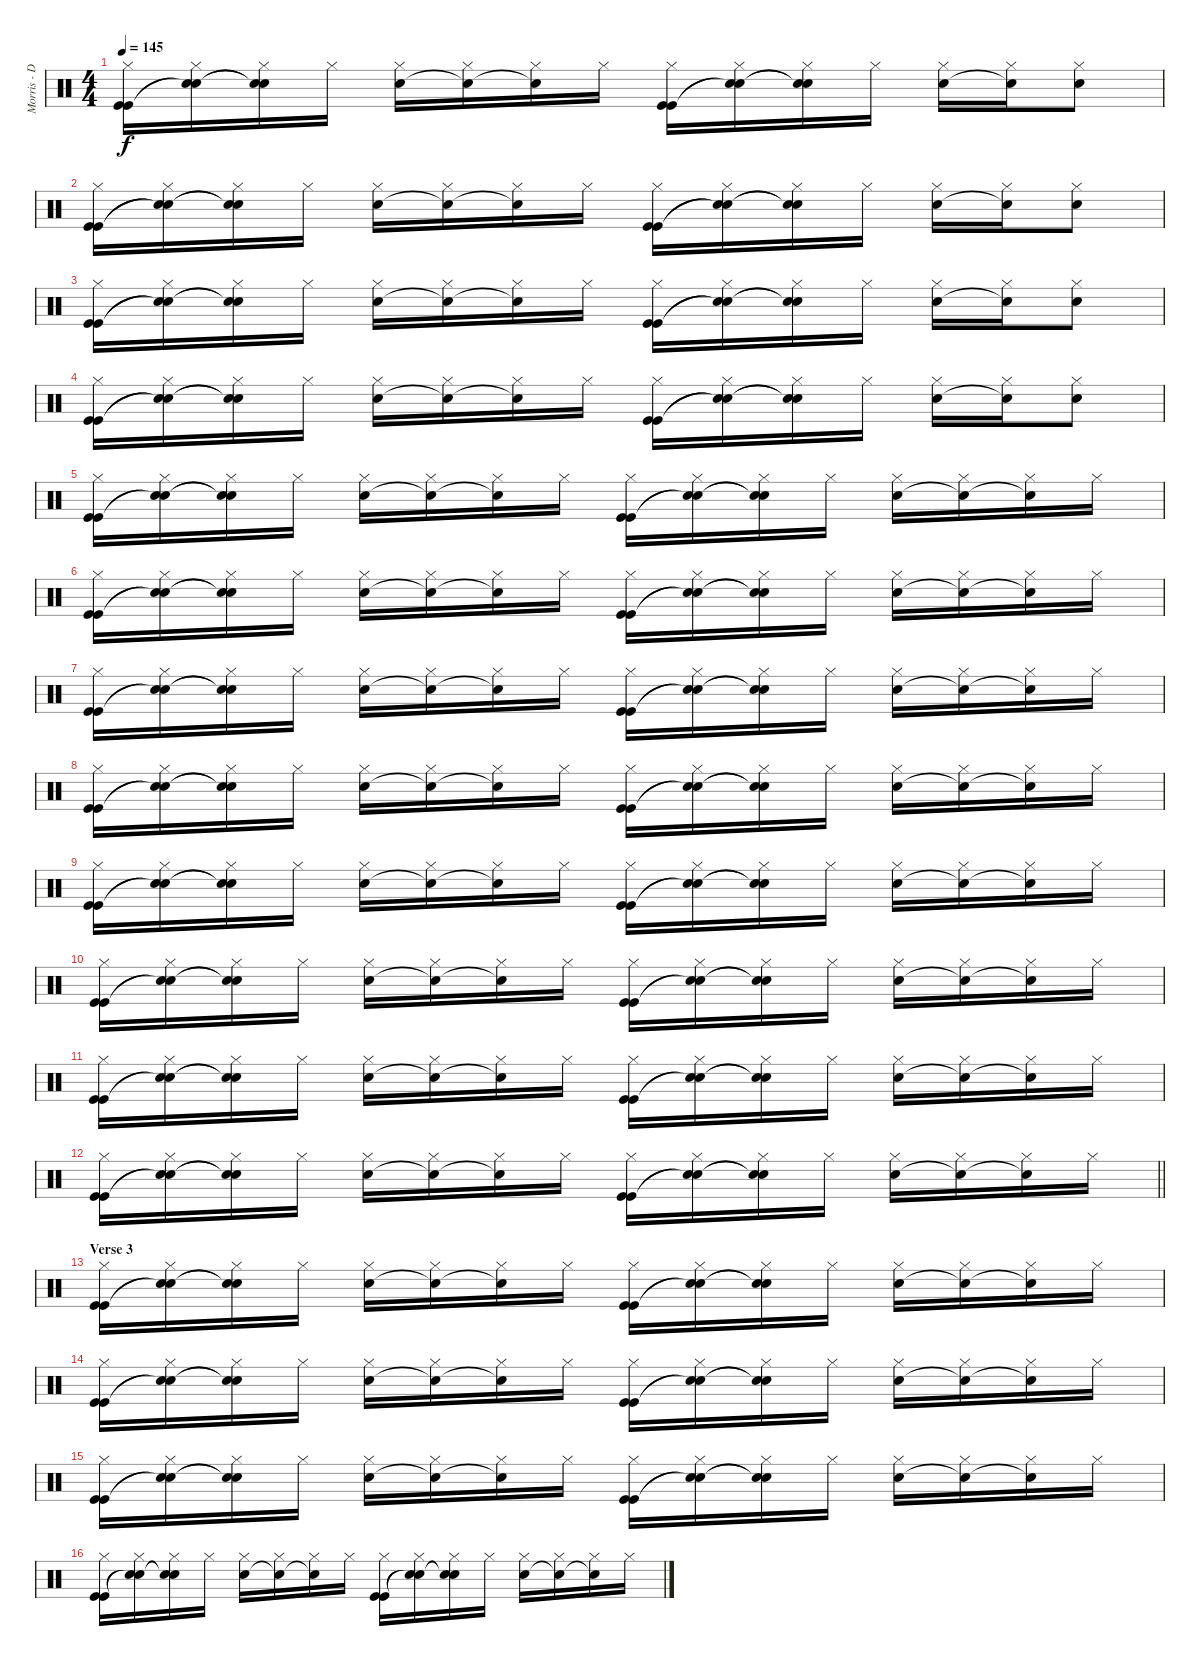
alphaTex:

\track ("Morris - Drums" "Morris - D") {instrument percussion}
\staff {score}
\articulation defaults
\ts (4 4)
\tempo 145
\clef neutral
\ks c
("Hi-Hat (closed)" "Kick (hit)" "Kick (hit)").16{dy f} ("Hi-Hat (closed)" "Snare (hit)"{t} "Snare (hit)"{t}).16 ("Hi-Hat (closed)" "Snare (hit)"{t} "Snare (hit)"{t}).16 "Hi-Hat (closed)".16 ("Hi-Hat (closed)" "Snare (hit) 2").16 ("Hi-Hat (closed)" "Snare (hit)"{t}).16 ("Hi-Hat (closed)" "Snare (hit)"{t}).16 "Hi-Hat (closed)".16 ("Hi-Hat (closed)" "Kick (hit)" "Kick (hit)").16 ("Hi-Hat (closed)" "Snare (hit)"{t} "Snare (hit)"{t}).16 ("Hi-Hat (closed)" "Snare (hit)"{t} "Snare (hit)"{t}).16 "Hi-Hat (closed)".16 ("Hi-Hat (closed)" "Snare (hit) 2").16 ("Hi-Hat (closed)" "Snare (hit) 2"{t}).16 ("Hi-Hat (closed)" "Snare (hit) 2").8 |
("Hi-Hat (closed)" "Kick (hit)" "Kick (hit)").16 ("Hi-Hat (closed)" "Snare (hit)"{t} "Snare (hit)"{t}).16 ("Hi-Hat (closed)" "Snare (hit)"{t} "Snare (hit)"{t}).16 "Hi-Hat (closed)".16 ("Hi-Hat (closed)" "Snare (hit) 2").16 ("Hi-Hat (closed)" "Snare (hit)"{t}).16 ("Hi-Hat (closed)" "Snare (hit)"{t}).16 "Hi-Hat (closed)".16 ("Hi-Hat (closed)" "Kick (hit)" "Kick (hit)").16 ("Hi-Hat (closed)" "Snare (hit)"{t} "Snare (hit)"{t}).16 ("Hi-Hat (closed)" "Snare (hit)"{t} "Snare (hit)"{t}).16 "Hi-Hat (closed)".16 ("Hi-Hat (closed)" "Snare (hit) 2").16 ("Hi-Hat (closed)" "Snare (hit) 2"{t}).16 ("Hi-Hat (closed)" "Snare (hit) 2").8 |
("Hi-Hat (closed)" "Kick (hit)" "Kick (hit)").16 ("Hi-Hat (closed)" "Snare (hit)"{t} "Snare (hit)"{t}).16 ("Hi-Hat (closed)" "Snare (hit)"{t} "Snare (hit)"{t}).16 "Hi-Hat (closed)".16 ("Hi-Hat (closed)" "Snare (hit) 2").16 ("Hi-Hat (closed)" "Snare (hit)"{t}).16 ("Hi-Hat (closed)" "Snare (hit)"{t}).16 "Hi-Hat (closed)".16 ("Hi-Hat (closed)" "Kick (hit)" "Kick (hit)").16 ("Hi-Hat (closed)" "Snare (hit)"{t} "Snare (hit)"{t}).16 ("Hi-Hat (closed)" "Snare (hit)"{t} "Snare (hit)"{t}).16 "Hi-Hat (closed)".16 ("Hi-Hat (closed)" "Snare (hit) 2").16 ("Hi-Hat (closed)" "Snare (hit) 2"{t}).16 ("Hi-Hat (closed)" "Snare (hit) 2").8 |
("Hi-Hat (closed)" "Kick (hit)" "Kick (hit)").16 ("Hi-Hat (closed)" "Snare (hit)"{t} "Snare (hit)"{t}).16 ("Hi-Hat (closed)" "Snare (hit)"{t} "Snare (hit)"{t}).16 "Hi-Hat (closed)".16 ("Hi-Hat (closed)" "Snare (hit) 2").16 ("Hi-Hat (closed)" "Snare (hit)"{t}).16 ("Hi-Hat (closed)" "Snare (hit)"{t}).16 "Hi-Hat (closed)".16 ("Hi-Hat (closed)" "Kick (hit)" "Kick (hit)").16 ("Hi-Hat (closed)" "Snare (hit)"{t} "Snare (hit)"{t}).16 ("Hi-Hat (closed)" "Snare (hit)"{t} "Snare (hit)"{t}).16 "Hi-Hat (closed)".16 ("Hi-Hat (closed)" "Snare (hit) 2").16 ("Hi-Hat (closed)" "Snare (hit) 2"{t}).16 ("Hi-Hat (closed)" "Snare (hit) 2").8 |
("Hi-Hat (closed)" "Kick (hit)" "Kick (hit)").16 ("Hi-Hat (closed)" "Snare (hit)"{t} "Snare (hit)"{t}).16 ("Hi-Hat (closed)" "Snare (hit)"{t} "Snare (hit)"{t}).16 "Hi-Hat (closed)".16 ("Hi-Hat (closed)" "Snare (hit) 2").16 ("Hi-Hat (closed)" "Snare (hit)"{t}).16 ("Hi-Hat (closed)" "Snare (hit) 2"{t}).16 "Hi-Hat (closed)".16 ("Hi-Hat (closed)" "Kick (hit)" "Kick (hit)").16 ("Hi-Hat (closed)" "Snare (hit)"{t} "Snare (hit)"{t}).16 ("Hi-Hat (closed)" "Snare (hit)"{t} "Snare (hit)"{t}).16 "Hi-Hat (closed)".16 ("Hi-Hat (closed)" "Snare (hit) 2").16 ("Hi-Hat (closed)" "Snare (hit) 2"{t}).16 ("Hi-Hat (closed)" "Snare (hit)"{t}).16 "Hi-Hat (closed)".16 |
("Hi-Hat (closed)" "Kick (hit)" "Kick (hit)").16 ("Hi-Hat (closed)" "Snare (hit)"{t} "Snare (hit)"{t}).16 ("Hi-Hat (closed)" "Snare (hit)"{t} "Snare (hit)"{t}).16 "Hi-Hat (closed)".16 ("Hi-Hat (closed)" "Snare (hit) 2").16 ("Hi-Hat (closed)" "Snare (hit)"{t}).16 ("Hi-Hat (closed)" "Snare (hit) 2"{t}).16 "Hi-Hat (closed)".16 ("Hi-Hat (closed)" "Kick (hit)" "Kick (hit)").16 ("Hi-Hat (closed)" "Snare (hit)"{t} "Snare (hit)"{t}).16 ("Hi-Hat (closed)" "Snare (hit)"{t} "Snare (hit)"{t}).16 "Hi-Hat (closed)".16 ("Hi-Hat (closed)" "Snare (hit) 2").16 ("Hi-Hat (closed)" "Snare (hit) 2"{t}).16 ("Hi-Hat (closed)" "Snare (hit)"{t}).16 "Hi-Hat (closed)".16 |
("Hi-Hat (closed)" "Kick (hit)" "Kick (hit)").16 ("Hi-Hat (closed)" "Snare (hit)"{t} "Snare (hit)"{t}).16 ("Hi-Hat (closed)" "Snare (hit)"{t} "Snare (hit)"{t}).16 "Hi-Hat (closed)".16 ("Hi-Hat (closed)" "Snare (hit) 2").16 ("Hi-Hat (closed)" "Snare (hit)"{t}).16 ("Hi-Hat (closed)" "Snare (hit) 2"{t}).16 "Hi-Hat (closed)".16 ("Hi-Hat (closed)" "Kick (hit)" "Kick (hit)").16 ("Hi-Hat (closed)" "Snare (hit)"{t} "Snare (hit)"{t}).16 ("Hi-Hat (closed)" "Snare (hit)"{t} "Snare (hit)"{t}).16 "Hi-Hat (closed)".16 ("Hi-Hat (closed)" "Snare (hit) 2").16 ("Hi-Hat (closed)" "Snare (hit) 2"{t}).16 ("Hi-Hat (closed)" "Snare (hit)"{t}).16 "Hi-Hat (closed)".16 |
("Hi-Hat (closed)" "Kick (hit)" "Kick (hit)").16 ("Hi-Hat (closed)" "Snare (hit)"{t} "Snare (hit)"{t}).16 ("Hi-Hat (closed)" "Snare (hit)"{t} "Snare (hit)"{t}).16 "Hi-Hat (closed)".16 ("Hi-Hat (closed)" "Snare (hit) 2").16 ("Hi-Hat (closed)" "Snare (hit)"{t}).16 ("Hi-Hat (closed)" "Snare (hit) 2"{t}).16 "Hi-Hat (closed)".16 ("Hi-Hat (closed)" "Kick (hit)" "Kick (hit)").16 ("Hi-Hat (closed)" "Snare (hit)"{t} "Snare (hit)"{t}).16 ("Hi-Hat (closed)" "Snare (hit)"{t} "Snare (hit)"{t}).16 "Hi-Hat (closed)".16 ("Hi-Hat (closed)" "Snare (hit) 2").16 ("Hi-Hat (closed)" "Snare (hit) 2"{t}).16 ("Hi-Hat (closed)" "Snare (hit)"{t}).16 "Hi-Hat (closed)".16 |
("Hi-Hat (closed)" "Kick (hit)" "Kick (hit)").16 ("Hi-Hat (closed)" "Snare (hit)"{t} "Snare (hit)"{t}).16 ("Hi-Hat (closed)" "Snare (hit)"{t} "Snare (hit)"{t}).16 "Hi-Hat (closed)".16 ("Hi-Hat (closed)" "Snare (hit) 2").16 ("Hi-Hat (closed)" "Snare (hit)"{t}).16 ("Hi-Hat (closed)" "Snare (hit) 2"{t}).16 "Hi-Hat (closed)".16 ("Hi-Hat (closed)" "Kick (hit)" "Kick (hit)").16 ("Hi-Hat (closed)" "Snare (hit)"{t} "Snare (hit)"{t}).16 ("Hi-Hat (closed)" "Snare (hit)"{t} "Snare (hit)"{t}).16 "Hi-Hat (closed)".16 ("Hi-Hat (closed)" "Snare (hit) 2").16 ("Hi-Hat (closed)" "Snare (hit) 2"{t}).16 ("Hi-Hat (closed)" "Snare (hit)"{t}).16 "Hi-Hat (closed)".16 |
("Hi-Hat (closed)" "Kick (hit)" "Kick (hit)").16 ("Hi-Hat (closed)" "Snare (hit)"{t} "Snare (hit)"{t}).16 ("Hi-Hat (closed)" "Snare (hit)"{t} "Snare (hit)"{t}).16 "Hi-Hat (closed)".16 ("Hi-Hat (closed)" "Snare (hit) 2").16 ("Hi-Hat (closed)" "Snare (hit)"{t}).16 ("Hi-Hat (closed)" "Snare (hit) 2"{t}).16 "Hi-Hat (closed)".16 ("Hi-Hat (closed)" "Kick (hit)" "Kick (hit)").16 ("Hi-Hat (closed)" "Snare (hit)"{t} "Snare (hit)"{t}).16 ("Hi-Hat (closed)" "Snare (hit)"{t} "Snare (hit)"{t}).16 "Hi-Hat (closed)".16 ("Hi-Hat (closed)" "Snare (hit) 2").16 ("Hi-Hat (closed)" "Snare (hit) 2"{t}).16 ("Hi-Hat (closed)" "Snare (hit)"{t}).16 "Hi-Hat (closed)".16 |
("Hi-Hat (closed)" "Kick (hit)" "Kick (hit)").16 ("Hi-Hat (closed)" "Snare (hit)"{t} "Snare (hit)"{t}).16 ("Hi-Hat (closed)" "Snare (hit)"{t} "Snare (hit)"{t}).16 "Hi-Hat (closed)".16 ("Hi-Hat (closed)" "Snare (hit) 2").16 ("Hi-Hat (closed)" "Snare (hit)"{t}).16 ("Hi-Hat (closed)" "Snare (hit) 2"{t}).16 "Hi-Hat (closed)".16 ("Hi-Hat (closed)" "Kick (hit)" "Kick (hit)").16 ("Hi-Hat (closed)" "Snare (hit)"{t} "Snare (hit)"{t}).16 ("Hi-Hat (closed)" "Snare (hit)"{t} "Snare (hit)"{t}).16 "Hi-Hat (closed)".16 ("Hi-Hat (closed)" "Snare (hit) 2").16 ("Hi-Hat (closed)" "Snare (hit) 2"{t}).16 ("Hi-Hat (closed)" "Snare (hit)"{t}).16 "Hi-Hat (closed)".16 |
\barLineRight lightlight
("Hi-Hat (closed)" "Kick (hit)" "Kick (hit)").16 ("Hi-Hat (closed)" "Snare (hit)"{t} "Snare (hit)"{t}).16 ("Hi-Hat (closed)" "Snare (hit)"{t} "Snare (hit)"{t}).16 "Hi-Hat (closed)".16 ("Hi-Hat (closed)" "Snare (hit) 2").16 ("Hi-Hat (closed)" "Snare (hit)"{t}).16 ("Hi-Hat (closed)" "Snare (hit) 2"{t}).16 "Hi-Hat (closed)".16 ("Hi-Hat (closed)" "Kick (hit)" "Kick (hit)").16 ("Hi-Hat (closed)" "Snare (hit)"{t} "Snare (hit)"{t}).16 ("Hi-Hat (closed)" "Snare (hit)"{t} "Snare (hit)"{t}).16 "Hi-Hat (closed)".16 ("Hi-Hat (closed)" "Snare (hit) 2").16 ("Hi-Hat (closed)" "Snare (hit) 2"{t}).16 ("Hi-Hat (closed)" "Snare (hit)"{t}).16 "Hi-Hat (closed)".16 |
\section ("" "Verse 3")
("Hi-Hat (closed)" "Kick (hit)" "Kick (hit)").16 ("Hi-Hat (closed)" "Snare (hit)"{t} "Snare (hit)"{t}).16 ("Hi-Hat (closed)" "Snare (hit)"{t} "Snare (hit)"{t}).16 "Hi-Hat (closed)".16 ("Hi-Hat (closed)" "Snare (hit) 2").16 ("Hi-Hat (closed)" "Snare (hit)"{t}).16 ("Hi-Hat (closed)" "Snare (hit) 2"{t}).16 "Hi-Hat (closed)".16 ("Hi-Hat (closed)" "Kick (hit)" "Kick (hit)").16 ("Hi-Hat (closed)" "Snare (hit)"{t} "Snare (hit)"{t}).16 ("Hi-Hat (closed)" "Snare (hit)"{t} "Snare (hit)"{t}).16 "Hi-Hat (closed)".16 ("Hi-Hat (closed)" "Snare (hit) 2").16 ("Hi-Hat (closed)" "Snare (hit) 2"{t}).16 ("Hi-Hat (closed)" "Snare (hit)"{t}).16 "Hi-Hat (closed)".16 |
("Hi-Hat (closed)" "Kick (hit)" "Kick (hit)").16 ("Hi-Hat (closed)" "Snare (hit)"{t} "Snare (hit)"{t}).16 ("Hi-Hat (closed)" "Snare (hit)"{t} "Snare (hit)"{t}).16 "Hi-Hat (closed)".16 ("Hi-Hat (closed)" "Snare (hit) 2").16 ("Hi-Hat (closed)" "Snare (hit)"{t}).16 ("Hi-Hat (closed)" "Snare (hit) 2"{t}).16 "Hi-Hat (closed)".16 ("Hi-Hat (closed)" "Kick (hit)" "Kick (hit)").16 ("Hi-Hat (closed)" "Snare (hit)"{t} "Snare (hit)"{t}).16 ("Hi-Hat (closed)" "Snare (hit)"{t} "Snare (hit)"{t}).16 "Hi-Hat (closed)".16 ("Hi-Hat (closed)" "Snare (hit) 2").16 ("Hi-Hat (closed)" "Snare (hit) 2"{t}).16 ("Hi-Hat (closed)" "Snare (hit)"{t}).16 "Hi-Hat (closed)".16 |
("Hi-Hat (closed)" "Kick (hit)" "Kick (hit)").16 ("Hi-Hat (closed)" "Snare (hit)"{t} "Snare (hit)"{t}).16 ("Hi-Hat (closed)" "Snare (hit)"{t} "Snare (hit)"{t}).16 "Hi-Hat (closed)".16 ("Hi-Hat (closed)" "Snare (hit) 2").16 ("Hi-Hat (closed)" "Snare (hit)"{t}).16 ("Hi-Hat (closed)" "Snare (hit) 2"{t}).16 "Hi-Hat (closed)".16 ("Hi-Hat (closed)" "Kick (hit)" "Kick (hit)").16 ("Hi-Hat (closed)" "Snare (hit)"{t} "Snare (hit)"{t}).16 ("Hi-Hat (closed)" "Snare (hit)"{t} "Snare (hit)"{t}).16 "Hi-Hat (closed)".16 ("Hi-Hat (closed)" "Snare (hit) 2").16 ("Hi-Hat (closed)" "Snare (hit) 2"{t}).16 ("Hi-Hat (closed)" "Snare (hit)"{t}).16 "Hi-Hat (closed)".16 |
("Hi-Hat (closed)" "Kick (hit)" "Kick (hit)").16 ("Hi-Hat (closed)" "Snare (hit)"{t} "Snare (hit)"{t}).16 ("Hi-Hat (closed)" "Snare (hit)"{t} "Snare (hit)"{t}).16 "Hi-Hat (closed)".16 ("Hi-Hat (closed)" "Snare (hit) 2").16 ("Hi-Hat (closed)" "Snare (hit)"{t}).16 ("Hi-Hat (closed)" "Snare (hit) 2"{t}).16 "Hi-Hat (closed)".16 ("Hi-Hat (closed)" "Kick (hit)" "Kick (hit)").16 ("Hi-Hat (closed)" "Snare (hit)"{t} "Snare (hit)"{t}).16 ("Hi-Hat (closed)" "Snare (hit)"{t} "Snare (hit)"{t}).16 "Hi-Hat (closed)".16 ("Hi-Hat (closed)" "Snare (hit) 2").16 ("Hi-Hat (closed)" "Snare (hit) 2"{t}).16 ("Hi-Hat (closed)" "Snare (hit)"{t}).16 "Hi-Hat (closed)".16
